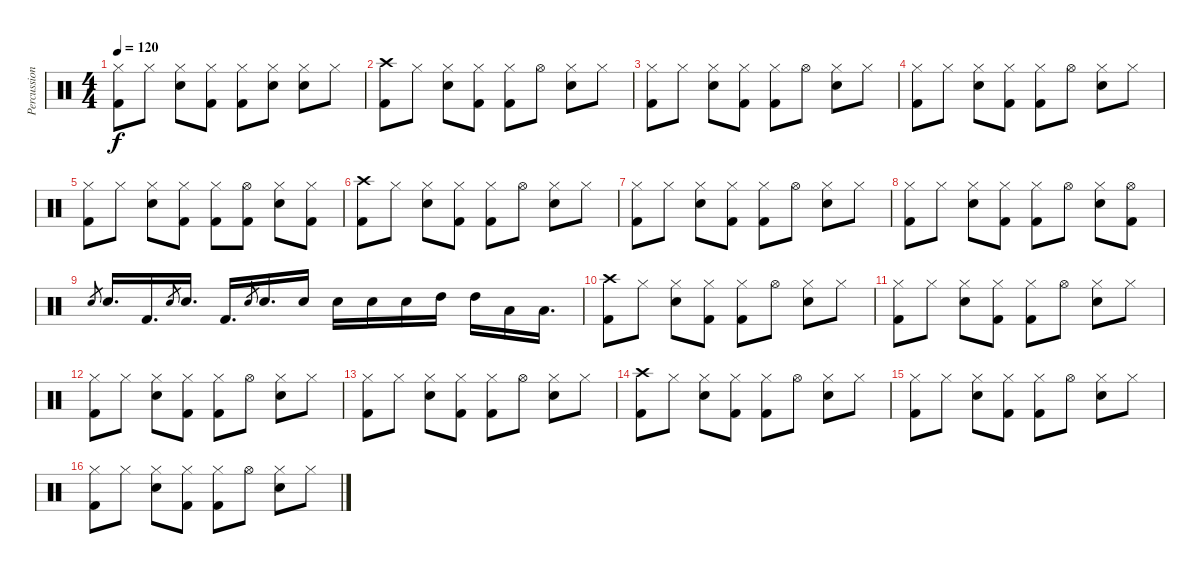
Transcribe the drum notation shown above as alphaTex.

\track ("Percussion" "Percussion") {instrument percussion}
\staff {score}
\articulation defaults
\ts (4 4)
\tempo 120
\clef neutral
\ks c
("Hi-Hat (closed)" "Kick (hit) 2").8{dy f} "Hi-Hat (closed)".8 ("Hi-Hat (closed)" "Electric Snare (hit)").8 ("Hi-Hat (closed)" "Kick (hit) 2").8 ("Hi-Hat (closed)" "Kick (hit) 2").8 ("Hi-Hat (closed)" "Electric Snare (hit)").8 ("Hi-Hat (closed)" "Electric Snare (hit)").8 "Hi-Hat (closed)".8 |
("Crash high (hit)" "Kick (hit) 2").8 "Hi-Hat (closed)".8 ("Hi-Hat (closed)" "Electric Snare (hit)").8 ("Hi-Hat (closed)" "Kick (hit) 2").8 ("Hi-Hat (closed)" "Kick (hit) 2").8 "Hi-Hat (open)".8 ("Hi-Hat (closed)" "Electric Snare (hit)").8 "Hi-Hat (closed)".8 |
("Hi-Hat (closed)" "Kick (hit) 2").8 "Hi-Hat (closed)".8 ("Hi-Hat (closed)" "Electric Snare (hit)").8 ("Hi-Hat (closed)" "Kick (hit) 2").8 ("Hi-Hat (closed)" "Kick (hit) 2").8 "Hi-Hat (open)".8 ("Hi-Hat (closed)" "Electric Snare (hit)").8 "Hi-Hat (closed)".8 |
("Hi-Hat (closed)" "Kick (hit) 2").8 "Hi-Hat (closed)".8 ("Hi-Hat (closed)" "Electric Snare (hit)").8 ("Hi-Hat (closed)" "Kick (hit) 2").8 ("Hi-Hat (closed)" "Kick (hit) 2").8 "Hi-Hat (open)".8 ("Hi-Hat (closed)" "Electric Snare (hit)").8 "Hi-Hat (closed)".8 |
("Hi-Hat (closed)" "Kick (hit) 2").8 "Hi-Hat (closed)".8 ("Hi-Hat (closed)" "Electric Snare (hit)").8 ("Hi-Hat (closed)" "Kick (hit) 2").8 ("Hi-Hat (closed)" "Kick (hit) 2").8 ("Hi-Hat (open)" "Kick (hit) 2").8 ("Hi-Hat (closed)" "Electric Snare (hit)").8 ("Hi-Hat (closed)" "Kick (hit) 2").8 |
("Crash high (hit)" "Kick (hit) 2").8 "Hi-Hat (closed)".8 ("Hi-Hat (closed)" "Electric Snare (hit)").8 ("Hi-Hat (closed)" "Kick (hit) 2").8 ("Hi-Hat (closed)" "Kick (hit) 2").8 "Hi-Hat (open)".8 ("Hi-Hat (closed)" "Electric Snare (hit)").8 "Hi-Hat (closed)".8 |
("Hi-Hat (closed)" "Kick (hit) 2").8 "Hi-Hat (closed)".8 ("Hi-Hat (closed)" "Electric Snare (hit)").8 ("Hi-Hat (closed)" "Kick (hit) 2").8 ("Hi-Hat (closed)" "Kick (hit) 2").8 "Hi-Hat (open)".8 ("Hi-Hat (closed)" "Electric Snare (hit)").8 "Hi-Hat (closed)".8 |
("Hi-Hat (closed)" "Kick (hit) 2").8 "Hi-Hat (closed)".8 ("Hi-Hat (closed)" "Electric Snare (hit)").8 ("Hi-Hat (closed)" "Kick (hit) 2").8 ("Hi-Hat (closed)" "Kick (hit) 2").8 "Hi-Hat (open)".8 ("Hi-Hat (closed)" "Electric Snare (hit)").8 ("Hi-Hat (open)" "Kick (hit) 2").8 |
"Electric Snare (hit)".8{gr} "Electric Snare (hit)".16{d} "Kick (hit) 2".16{d} "Electric Snare (hit)".8{gr} "Electric Snare (hit)".16{d} "Kick (hit) 2".16{d} "Electric Snare (hit)".8{gr} "Electric Snare (hit)".16{d} "Electric Snare (hit)".16 "Electric Snare (hit)".16 "Electric Snare (hit)".16 "Electric Snare (hit)".16 "High Tom (hit)".16 "High Tom (hit)".16 "Low Tom (hit)".16 "Low Tom (hit)".16{d} |
("Crash high (hit)" "Kick (hit) 2").8 "Hi-Hat (closed)".8 ("Hi-Hat (closed)" "Electric Snare (hit)").8 ("Hi-Hat (closed)" "Kick (hit) 2").8 ("Hi-Hat (closed)" "Kick (hit) 2").8 "Hi-Hat (open)".8 ("Hi-Hat (closed)" "Electric Snare (hit)").8 "Hi-Hat (closed)".8 |
("Hi-Hat (closed)" "Kick (hit) 2").8 "Hi-Hat (closed)".8 ("Hi-Hat (closed)" "Electric Snare (hit)").8 ("Hi-Hat (closed)" "Kick (hit) 2").8 ("Hi-Hat (closed)" "Kick (hit) 2").8 "Hi-Hat (open)".8 ("Hi-Hat (closed)" "Electric Snare (hit)").8 "Hi-Hat (closed)".8 |
("Hi-Hat (closed)" "Kick (hit) 2").8 "Hi-Hat (closed)".8 ("Hi-Hat (closed)" "Electric Snare (hit)").8 ("Hi-Hat (closed)" "Kick (hit) 2").8 ("Hi-Hat (closed)" "Kick (hit) 2").8 "Hi-Hat (open)".8 ("Hi-Hat (closed)" "Electric Snare (hit)").8 "Hi-Hat (closed)".8 |
("Hi-Hat (closed)" "Kick (hit) 2").8 "Hi-Hat (closed)".8 ("Hi-Hat (closed)" "Electric Snare (hit)").8 ("Hi-Hat (closed)" "Kick (hit) 2").8 ("Hi-Hat (closed)" "Kick (hit) 2").8 "Hi-Hat (open)".8 ("Hi-Hat (closed)" "Electric Snare (hit)").8 "Hi-Hat (closed)".8 |
("Crash high (hit)" "Kick (hit) 2").8 "Hi-Hat (closed)".8 ("Hi-Hat (closed)" "Electric Snare (hit)").8 ("Hi-Hat (closed)" "Kick (hit) 2").8 ("Hi-Hat (closed)" "Kick (hit) 2").8 "Hi-Hat (open)".8 ("Hi-Hat (closed)" "Electric Snare (hit)").8 "Hi-Hat (closed)".8 |
("Hi-Hat (closed)" "Kick (hit) 2").8 "Hi-Hat (closed)".8 ("Hi-Hat (closed)" "Electric Snare (hit)").8 ("Hi-Hat (closed)" "Kick (hit) 2").8 ("Hi-Hat (closed)" "Kick (hit) 2").8 "Hi-Hat (open)".8 ("Hi-Hat (closed)" "Electric Snare (hit)").8 "Hi-Hat (closed)".8 |
("Hi-Hat (closed)" "Kick (hit) 2").8 "Hi-Hat (closed)".8 ("Hi-Hat (closed)" "Electric Snare (hit)").8 ("Hi-Hat (closed)" "Kick (hit) 2").8 ("Hi-Hat (closed)" "Kick (hit) 2").8 "Hi-Hat (open)".8 ("Hi-Hat (closed)" "Electric Snare (hit)").8 "Hi-Hat (closed)".8
